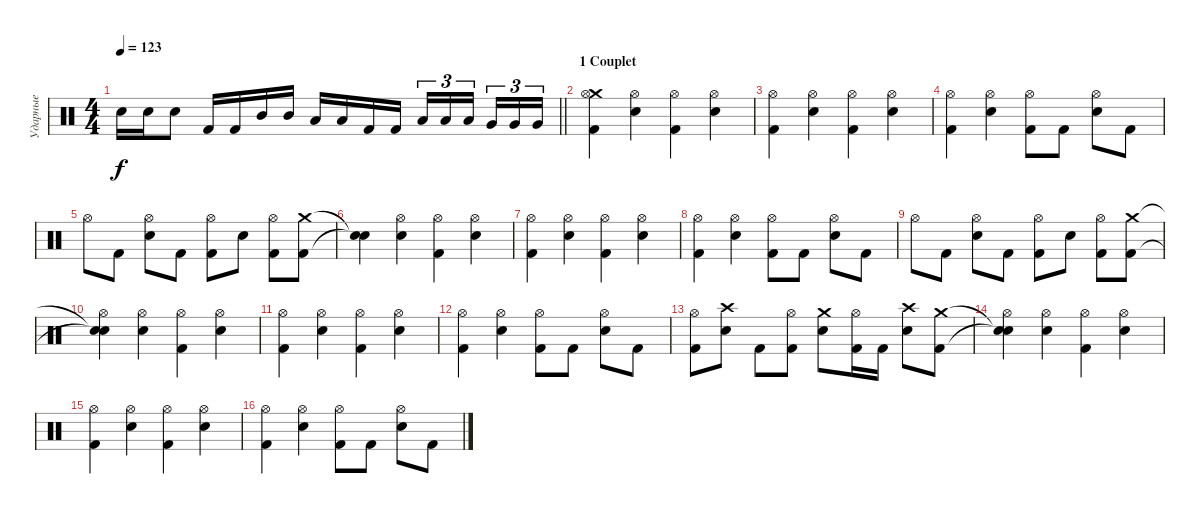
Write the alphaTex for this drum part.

\track ("Ударные" "Ударные") {instrument percussion}
\staff {score}
\articulation defaults
\ts (4 4)
\tempo 123
\clef neutral
\barLineRight lightlight
\ks c "Snare (hit) 2".16{dy f} "Snare (hit) 2".16 "Snare (hit) 2".8 "Kick (hit) 2".16 "Kick (hit) 2".16 "Mid Tom (hit)".16 "Mid Tom (hit)".16 "Low Tom (hit)".16 "Low Tom (hit)".16 "Kick (hit) 2".16 "Kick (hit) 2".16 "Low Tom (hit)".16{tu (3 2)} "Low Tom (hit)".16{tu (3 2)} "Low Tom (hit)".16{tu (3 2) beam splitsecondary} "Very Low Tom (hit)".16{tu (3 2)} "Very Low Tom (hit)".16{tu (3 2)} "Very Low Tom (hit)".16{tu (3 2)}
|
\section ("" "1 Couplet")
("Crash medium (hit)" "Kick (hit) 2" "Hi-Hat (open)").4 ("Snare (hit) 2" "Hi-Hat (open)").4 ("Kick (hit) 2" "Hi-Hat (open)").4 ("Snare (hit) 2" "Hi-Hat (open)").4 |
("Kick (hit) 2" "Hi-Hat (open)").4 ("Snare (hit) 2" "Hi-Hat (open)").4 ("Kick (hit) 2" "Hi-Hat (open)").4 ("Snare (hit) 2" "Hi-Hat (open)").4 |
("Kick (hit) 2" "Hi-Hat (open)").4 ("Snare (hit) 2" "Hi-Hat (open)").4 ("Kick (hit) 2" "Hi-Hat (open)").8 "Kick (hit) 2".8 ("Snare (hit) 2" "Hi-Hat (open)").8 "Kick (hit) 2".8 |
"Hi-Hat (open)".8 "Kick (hit) 2".8 ("Snare (hit) 2" "Hi-Hat (open)").8 "Kick (hit) 2".8 ("Kick (hit) 2" "Hi-Hat (open)").8 "Snare (hit) 2".8 ("Kick (hit) 2" "Hi-Hat (open)").8 ("Crash medium (hit)" "Kick (hit) 2").8 |
("Snare (hit)"{t} "Snare (hit)"{t}).4 ("Snare (hit) 2" "Hi-Hat (open)").4 ("Kick (hit) 2" "Hi-Hat (open)").4 ("Snare (hit) 2" "Hi-Hat (open)").4 |
("Kick (hit) 2" "Hi-Hat (open)").4 ("Snare (hit) 2" "Hi-Hat (open)").4 ("Kick (hit) 2" "Hi-Hat (open)").4 ("Snare (hit) 2" "Hi-Hat (open)").4 |
("Kick (hit) 2" "Hi-Hat (open)").4 ("Snare (hit) 2" "Hi-Hat (open)").4 ("Kick (hit) 2" "Hi-Hat (open)").8 "Kick (hit) 2".8 ("Snare (hit) 2" "Hi-Hat (open)").8 "Kick (hit) 2".8 |
"Hi-Hat (open)".8 "Kick (hit) 2".8 ("Snare (hit) 2" "Hi-Hat (open)").8 "Kick (hit) 2".8 ("Kick (hit) 2" "Hi-Hat (open)").8 "Snare (hit) 2".8 ("Kick (hit) 2" "Hi-Hat (open)").8 ("Crash medium (hit)" "Kick (hit) 2").8 |
("Snare (hit)"{t} "Snare (hit)"{t} "Hi-Hat (open)").4 ("Snare (hit) 2" "Hi-Hat (open)").4 ("Kick (hit) 2" "Hi-Hat (open)").4 ("Snare (hit) 2" "Hi-Hat (open)").4 |
("Kick (hit) 2" "Hi-Hat (open)").4 ("Snare (hit) 2" "Hi-Hat (open)").4 ("Kick (hit) 2" "Hi-Hat (open)").4 ("Snare (hit) 2" "Hi-Hat (open)").4 |
("Kick (hit) 2" "Hi-Hat (open)").4 ("Snare (hit) 2" "Hi-Hat (open)").4 ("Kick (hit) 2" "Hi-Hat (open)").8 "Kick (hit) 2".8 ("Snare (hit) 2" "Hi-Hat (open)").8 "Kick (hit) 2".8 |
("Kick (hit) 2" "Hi-Hat (open)").8 ("Crash high (hit)" "Snare (hit) 2").8 "Kick (hit) 2".8 ("Kick (hit) 2" "Hi-Hat (open)").8 ("Crash medium (hit)" "Snare (hit) 2").8 ("Kick (hit) 2" "Hi-Hat (open)").16 "Kick (hit) 2".16 ("Crash high (hit)" "Snare (hit) 2").8 ("Crash medium (hit)" "Kick (hit) 2").8 |
("Snare (hit)"{t} "Snare (hit)"{t} "Hi-Hat (open)").4 ("Snare (hit) 2" "Hi-Hat (open)").4 ("Kick (hit) 2" "Hi-Hat (open)").4 ("Snare (hit) 2" "Hi-Hat (open)").4 |
("Kick (hit) 2" "Hi-Hat (open)").4 ("Snare (hit) 2" "Hi-Hat (open)").4 ("Kick (hit) 2" "Hi-Hat (open)").4 ("Snare (hit) 2" "Hi-Hat (open)").4 |
("Kick (hit) 2" "Hi-Hat (open)").4 ("Snare (hit) 2" "Hi-Hat (open)").4 ("Kick (hit) 2" "Hi-Hat (open)").8 "Kick (hit) 2".8 ("Snare (hit) 2" "Hi-Hat (open)").8 "Kick (hit) 2".8
